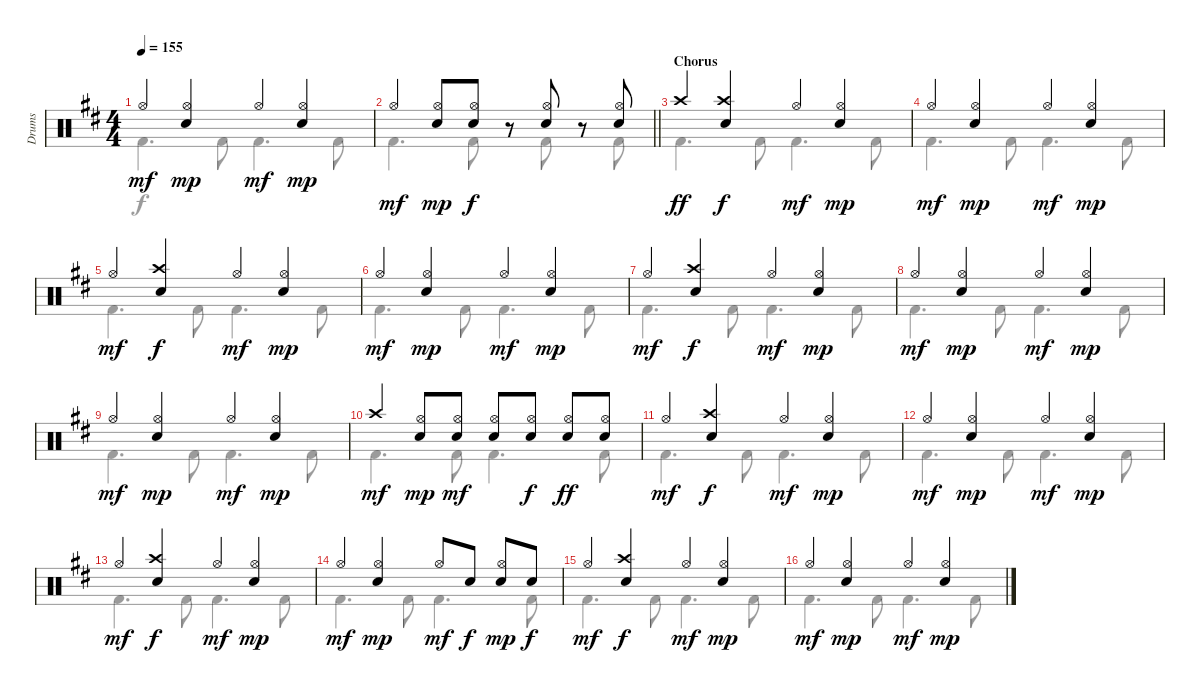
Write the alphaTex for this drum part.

\track ("Drums" "Drums") {instrument percussion}
\staff {score}
\articulation defaults
\voice
\ts (4 4)
\tempo 155
\clef neutral
\ks d "Hi-Hat (open)".4{dy mf}
("Hi-Hat (open)" "Electric Snare (hit)").4{dy mp} "Hi-Hat (open)".4{dy mf} ("Hi-Hat (open)" "Electric Snare (hit)").4{dy mp} |
\barLineRight lightlight "Hi-Hat (open)".4{dy mf}
("Hi-Hat (open)" "Electric Snare (hit)").8{dy mp} ("Hi-Hat (open)" "Electric Snare (hit)").8{dy f} r.8 ("Hi-Hat (open)" "Electric Snare (hit)").8 r.8 ("Hi-Hat (open)" "Electric Snare (hit)").8 |
\section ("" "Chorus")
"Crash high (hit)".4{dy ff} ("Crash high (hit)" "Electric Snare (hit)").4{dy f} "Hi-Hat (open)".4{dy mf} ("Hi-Hat (open)" "Electric Snare (hit)").4{dy mp} |
"Hi-Hat (open)".4{dy mf} ("Hi-Hat (open)" "Electric Snare (hit)").4{dy mp} "Hi-Hat (open)".4{dy mf} ("Hi-Hat (open)" "Electric Snare (hit)").4{dy mp} |
"Hi-Hat (open)".4{dy mf} ("Crash high (hit)" "Electric Snare (hit)").4{dy f} "Hi-Hat (open)".4{dy mf} ("Hi-Hat (open)" "Electric Snare (hit)").4{dy mp} |
"Hi-Hat (open)".4{dy mf} ("Hi-Hat (open)" "Electric Snare (hit)").4{dy mp} "Hi-Hat (open)".4{dy mf} ("Hi-Hat (open)" "Electric Snare (hit)").4{dy mp} |
"Hi-Hat (open)".4{dy mf} ("Crash high (hit)" "Electric Snare (hit)").4{dy f} "Hi-Hat (open)".4{dy mf} ("Hi-Hat (open)" "Electric Snare (hit)").4{dy mp} |
"Hi-Hat (open)".4{dy mf} ("Hi-Hat (open)" "Electric Snare (hit)").4{dy mp} "Hi-Hat (open)".4{dy mf} ("Hi-Hat (open)" "Electric Snare (hit)").4{dy mp} |
"Hi-Hat (open)".4{dy mf} ("Hi-Hat (open)" "Electric Snare (hit)").4{dy mp} "Hi-Hat (open)".4{dy mf} ("Hi-Hat (open)" "Electric Snare (hit)").4{dy mp} |
"Crash high (hit)".4{dy mf} ("Hi-Hat (open)" "Electric Snare (hit)").8{dy mp} ("Hi-Hat (open)" "Electric Snare (hit)").8{dy mf} ("Hi-Hat (open)" "Electric Snare (hit)").8 ("Hi-Hat (open)" "Electric Snare (hit)").8{dy f} ("Hi-Hat (open)" "Electric Snare (hit)").8{dy ff} ("Hi-Hat (open)" "Electric Snare (hit)").8 |
"Hi-Hat (open)".4{dy mf} ("Crash high (hit)" "Electric Snare (hit)").4{dy f} "Hi-Hat (open)".4{dy mf} ("Hi-Hat (open)" "Electric Snare (hit)").4{dy mp} |
"Hi-Hat (open)".4{dy mf} ("Hi-Hat (open)" "Electric Snare (hit)").4{dy mp} "Hi-Hat (open)".4{dy mf} ("Hi-Hat (open)" "Electric Snare (hit)").4{dy mp} |
"Hi-Hat (open)".4{dy mf} ("Crash high (hit)" "Electric Snare (hit)").4{dy f} "Hi-Hat (open)".4{dy mf} ("Hi-Hat (open)" "Electric Snare (hit)").4{dy mp} |
"Hi-Hat (open)".4{dy mf} ("Hi-Hat (open)" "Electric Snare (hit)").4{dy mp} "Hi-Hat (open)".8{dy mf} "Electric Snare (hit)".8{dy f} ("Hi-Hat (open)" "Electric Snare (hit)").8{dy mp} "Electric Snare (hit)".8{dy f} |
"Hi-Hat (open)".4{dy mf} ("Crash high (hit)" "Electric Snare (hit)").4{dy f} "Hi-Hat (open)".4{dy mf} ("Hi-Hat (open)" "Electric Snare (hit)").4{dy mp} |
"Hi-Hat (open)".4{dy mf} ("Hi-Hat (open)" "Electric Snare (hit)").4{dy mp} "Hi-Hat (open)".4{dy mf} ("Hi-Hat (open)" "Electric Snare (hit)").4{dy mp}
\voice
\clef neutral
\ottava regular
\simile none
\ks d "Kick (hit) 2".4{d dy f} "Kick (hit) 2".8 "Kick (hit) 2".4{d} "Kick (hit) 2".8
|
\barLineRight lightlight "Kick (hit) 2".4{d} "Kick (hit) 2".8
r.8 "Kick (hit) 2".8 r.8 "Kick (hit) 2".8 |
"Kick (hit) 2".4{d} "Kick (hit) 2".8 "Kick (hit) 2".4{d} "Kick (hit) 2".8 |
"Kick (hit) 2".4{d} "Kick (hit) 2".8 "Kick (hit) 2".4{d} "Kick (hit) 2".8 |
"Kick (hit) 2".4{d} "Kick (hit) 2".8 "Kick (hit) 2".4{d} "Kick (hit) 2".8 |
"Kick (hit) 2".4{d} "Kick (hit) 2".8 "Kick (hit) 2".4{d} "Kick (hit) 2".8 |
"Kick (hit) 2".4{d} "Kick (hit) 2".8 "Kick (hit) 2".4{d} "Kick (hit) 2".8 |
"Kick (hit) 2".4{d} "Kick (hit) 2".8 "Kick (hit) 2".4{d} "Kick (hit) 2".8 |
"Kick (hit) 2".4{d} "Kick (hit) 2".8 "Kick (hit) 2".4{d} "Kick (hit) 2".8 |
"Kick (hit) 2".4{d} "Kick (hit) 2".8 "Kick (hit) 2".4{d} "Kick (hit) 2".8 |
"Kick (hit) 2".4{d} "Kick (hit) 2".8 "Kick (hit) 2".4{d} "Kick (hit) 2".8 |
"Kick (hit) 2".4{d} "Kick (hit) 2".8 "Kick (hit) 2".4{d} "Kick (hit) 2".8 |
"Kick (hit) 2".4{d} "Kick (hit) 2".8 "Kick (hit) 2".4{d} "Kick (hit) 2".8 |
"Kick (hit) 2".4{d} "Kick (hit) 2".8 "Kick (hit) 2".4{d} "Kick (hit) 2".8 |
"Kick (hit) 2".4{d} "Kick (hit) 2".8 "Kick (hit) 2".4{d} "Kick (hit) 2".8 |
"Kick (hit) 2".4{d} "Kick (hit) 2".8 "Kick (hit) 2".4{d} "Kick (hit) 2".8
